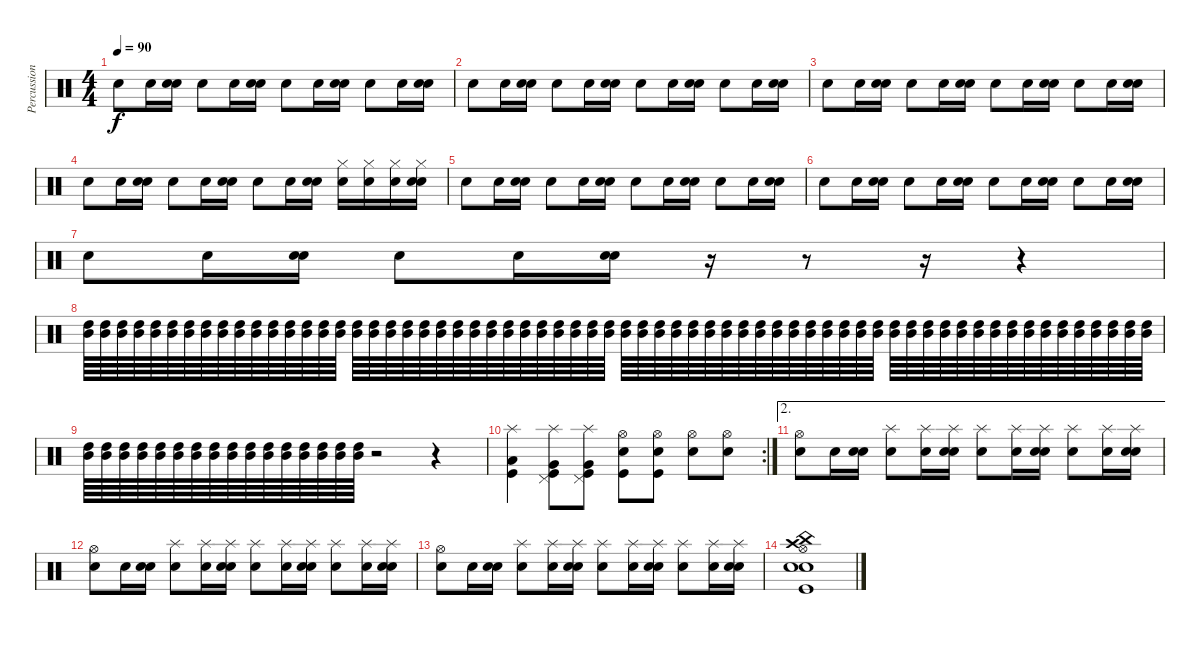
\track ("Percussions" "Percussion") {instrument percussion}
\staff {score}
\articulation defaults
\ts (4 4)
\tempo 90
\clef neutral
\ks c "Snare (hit) 2".8{dy f} "Snare (hit) 2".16
("Electric Snare (hit)" "Snare (hit) 2").16 "Snare (hit) 2".8 "Snare (hit) 2".16 ("Electric Snare (hit)" "Snare (hit) 2").16 "Snare (hit) 2".8 "Snare (hit) 2".16 ("Electric Snare (hit)" "Snare (hit) 2").16 "Snare (hit) 2".8 "Snare (hit) 2".16 ("Electric Snare (hit)" "Snare (hit) 2").16 |
"Snare (hit) 2".8 "Snare (hit) 2".16 ("Electric Snare (hit)" "Snare (hit) 2").16 "Snare (hit) 2".8 "Snare (hit) 2".16 ("Electric Snare (hit)" "Snare (hit) 2").16 "Snare (hit) 2".8 "Snare (hit) 2".16 ("Electric Snare (hit)" "Snare (hit) 2").16 "Snare (hit) 2".8 "Snare (hit) 2".16 ("Electric Snare (hit)" "Snare (hit) 2").16 |
"Snare (hit) 2".8 "Snare (hit) 2".16 ("Electric Snare (hit)" "Snare (hit) 2").16 "Snare (hit) 2".8 "Snare (hit) 2".16 ("Electric Snare (hit)" "Snare (hit) 2").16 "Snare (hit) 2".8 "Snare (hit) 2".16 ("Electric Snare (hit)" "Snare (hit) 2").16 "Snare (hit) 2".8 "Snare (hit) 2".16 ("Electric Snare (hit)" "Snare (hit) 2").16 |
"Snare (hit) 2".8 "Snare (hit) 2".16 ("Electric Snare (hit)" "Snare (hit) 2").16 "Snare (hit) 2".8 "Snare (hit) 2".16 ("Electric Snare (hit)" "Snare (hit) 2").16 "Snare (hit) 2".8 "Snare (hit) 2".16 ("Electric Snare (hit)" "Snare (hit) 2").16 ("Hi-Hat (closed)" "Snare (hit) 2").16 ("Hi-Hat (closed)" "Snare (hit) 2").16 ("Hi-Hat (closed)" "Snare (hit) 2").16 ("Hi-Hat (closed)" "Electric Snare (hit)" "Snare (hit) 2").16 |
"Snare (hit) 2".8 "Snare (hit) 2".16 ("Electric Snare (hit)" "Snare (hit) 2").16 "Snare (hit) 2".8 "Snare (hit) 2".16 ("Electric Snare (hit)" "Snare (hit) 2").16 "Snare (hit) 2".8 "Snare (hit) 2".16 ("Electric Snare (hit)" "Snare (hit) 2").16 "Snare (hit) 2".8 "Snare (hit) 2".16 ("Electric Snare (hit)" "Snare (hit) 2").16 |
"Snare (hit) 2".8 "Snare (hit) 2".16 ("Electric Snare (hit)" "Snare (hit) 2").16 "Snare (hit) 2".8 "Snare (hit) 2".16 ("Electric Snare (hit)" "Snare (hit) 2").16 "Snare (hit) 2".8 "Snare (hit) 2".16 ("Electric Snare (hit)" "Snare (hit) 2").16 "Snare (hit) 2".8 "Snare (hit) 2".16 ("Electric Snare (hit)" "Snare (hit) 2").16 |
"Snare (hit) 2".8 "Snare (hit) 2".16 ("Electric Snare (hit)" "Snare (hit) 2").16 "Snare (hit) 2".8 "Snare (hit) 2".16 ("Electric Snare (hit)" "Snare (hit) 2").16 r.16 r.8 r.16 r.4{volume 5} |
("Mid Tom (hit)" "High Tom (hit)").64{volume 10} ("Mid Tom (hit)" "High Tom (hit)").64 ("Mid Tom (hit)" "High Tom (hit)").64 ("Mid Tom (hit)" "High Tom (hit)").64 ("Mid Tom (hit)" "High Tom (hit)").64 ("Mid Tom (hit)" "High Tom (hit)").64 ("Mid Tom (hit)" "High Tom (hit)").64 ("Mid Tom (hit)" "High Tom (hit)").64 ("Mid Tom (hit)" "High Tom (hit)").64 ("Mid Tom (hit)" "High Tom (hit)").64 ("Mid Tom (hit)" "High Tom (hit)").64 ("Mid Tom (hit)" "High Tom (hit)").64 ("Mid Tom (hit)" "High Tom (hit)").64 ("Mid Tom (hit)" "High Tom (hit)").64 ("Mid Tom (hit)" "High Tom (hit)").64 ("Mid Tom (hit)" "High Tom (hit)").64 ("Mid Tom (hit)" "High Tom (hit)").64 ("Mid Tom (hit)" "High Tom (hit)").64 ("Mid Tom (hit)" "High Tom (hit)").64 ("Mid Tom (hit)" "High Tom (hit)").64 ("Mid Tom (hit)" "High Tom (hit)").64 ("Mid Tom (hit)" "High Tom (hit)").64 ("Mid Tom (hit)" "High Tom (hit)").64 ("Mid Tom (hit)" "High Tom (hit)").64 ("Mid Tom (hit)" "High Tom (hit)").64 ("Mid Tom (hit)" "High Tom (hit)").64 ("Mid Tom (hit)" "High Tom (hit)").64 ("Mid Tom (hit)" "High Tom (hit)").64 ("Mid Tom (hit)" "High Tom (hit)").64 ("Mid Tom (hit)" "High Tom (hit)").64 ("Mid Tom (hit)" "High Tom (hit)").64 ("Mid Tom (hit)" "High Tom (hit)").64 ("Mid Tom (hit)" "High Tom (hit)").64 ("Mid Tom (hit)" "High Tom (hit)").64 ("Mid Tom (hit)" "High Tom (hit)").64 ("Mid Tom (hit)" "High Tom (hit)").64 ("Mid Tom (hit)" "High Tom (hit)").64 ("Mid Tom (hit)" "High Tom (hit)").64 ("Mid Tom (hit)" "High Tom (hit)").64 ("Mid Tom (hit)" "High Tom (hit)").64 ("Mid Tom (hit)" "High Tom (hit)").64 ("Mid Tom (hit)" "High Tom (hit)").64 ("Mid Tom (hit)" "High Tom (hit)").64 ("Mid Tom (hit)" "High Tom (hit)").64 ("Mid Tom (hit)" "High Tom (hit)").64 ("Mid Tom (hit)" "High Tom (hit)").64 ("Mid Tom (hit)" "High Tom (hit)").64 ("Mid Tom (hit)" "High Tom (hit)").64 ("Mid Tom (hit)" "High Tom (hit)").64 ("Mid Tom (hit)" "High Tom (hit)").64 ("Mid Tom (hit)" "High Tom (hit)").64 ("Mid Tom (hit)" "High Tom (hit)").64 ("Mid Tom (hit)" "High Tom (hit)").64 ("Mid Tom (hit)" "High Tom (hit)").64 ("Mid Tom (hit)" "High Tom (hit)").64 ("Mid Tom (hit)" "High Tom (hit)").64 ("Mid Tom (hit)" "High Tom (hit)").64 ("Mid Tom (hit)" "High Tom (hit)").64 ("Mid Tom (hit)" "High Tom (hit)").64 ("Mid Tom (hit)" "High Tom (hit)").64 ("Mid Tom (hit)" "High Tom (hit)").64 ("Mid Tom (hit)" "High Tom (hit)").64 ("Mid Tom (hit)" "High Tom (hit)").64 ("Mid Tom (hit)" "High Tom (hit)").64 |
("Mid Tom (hit)" "High Tom (hit)").64 ("Mid Tom (hit)" "High Tom (hit)").64 ("Mid Tom (hit)" "High Tom (hit)").64 ("Mid Tom (hit)" "High Tom (hit)").64 ("Mid Tom (hit)" "High Tom (hit)").64 ("Mid Tom (hit)" "High Tom (hit)").64 ("Mid Tom (hit)" "High Tom (hit)").64 ("Mid Tom (hit)" "High Tom (hit)").64 ("Mid Tom (hit)" "High Tom (hit)").64 ("Mid Tom (hit)" "High Tom (hit)").64 ("Mid Tom (hit)" "High Tom (hit)").64 ("Mid Tom (hit)" "High Tom (hit)").64 ("Mid Tom (hit)" "High Tom (hit)").64 ("Mid Tom (hit)" "High Tom (hit)").64 ("Mid Tom (hit)" "High Tom (hit)").64 ("Mid Tom (hit)" "High Tom (hit)").64 r.2 r.4 |
\rc 2
("Splash (hit)" "Low Tom (hit)" "Kick (hit)").4 ("Splash (hit)" "Very Low Tom (hit)" "Pedal Hi-Hat (hit)" "Kick (hit)").8 ("Splash (hit)" "Very Low Tom (hit)" "Pedal Hi-Hat (hit)" "Kick (hit)").8 ("Hi-Hat (open)" "Snare (hit) 2" "Kick (hit)").8 ("Hi-Hat (open)" "Snare (hit) 2" "Kick (hit)").8 ("Hi-Hat (open)" "Snare (hit) 2").8 ("Hi-Hat (open)" "Snare (hit) 2").8 |
\ae 2
("Hi-Hat (open)" "Snare (hit) 2").8 "Snare (hit) 2".16 ("Electric Snare (hit)" "Snare (hit) 2").16 ("Splash (hit)" "Snare (hit) 2").8 ("Splash (hit)" "Snare (hit) 2").16 ("Splash (hit)" "Electric Snare (hit)" "Snare (hit) 2").16 ("Splash (hit)" "Snare (hit) 2").8 ("Splash (hit)" "Snare (hit) 2").16 ("Splash (hit)" "Electric Snare (hit)" "Snare (hit) 2").16 ("Splash (hit)" "Snare (hit) 2").8 ("Splash (hit)" "Snare (hit) 2").16 ("Splash (hit)" "Electric Snare (hit)" "Snare (hit) 2").16 |
("Hi-Hat (open)" "Snare (hit) 2").8 "Snare (hit) 2".16 ("Electric Snare (hit)" "Snare (hit) 2").16 ("Splash (hit)" "Snare (hit) 2").8 ("Splash (hit)" "Snare (hit) 2").16 ("Splash (hit)" "Electric Snare (hit)" "Snare (hit) 2").16 ("Splash (hit)" "Snare (hit) 2").8 ("Splash (hit)" "Snare (hit) 2").16 ("Splash (hit)" "Electric Snare (hit)" "Snare (hit) 2").16 ("Splash (hit)" "Snare (hit) 2").8 ("Splash (hit)" "Snare (hit) 2").16 ("Splash (hit)" "Electric Snare (hit)" "Snare (hit) 2").16 |
("Hi-Hat (open)" "Snare (hit) 2").8 "Snare (hit) 2".16 ("Electric Snare (hit)" "Snare (hit) 2").16 ("Splash (hit)" "Snare (hit) 2").8 ("Splash (hit)" "Snare (hit) 2").16 ("Splash (hit)" "Electric Snare (hit)" "Snare (hit) 2").16 ("Splash (hit)" "Snare (hit) 2").8 ("Splash (hit)" "Snare (hit) 2").16 ("Splash (hit)" "Electric Snare (hit)" "Snare (hit) 2").16 ("Splash (hit)" "Snare (hit) 2").8 ("Splash (hit)" "Snare (hit) 2").16 ("Splash (hit)" "Electric Snare (hit)" "Snare (hit) 2").16 |
("Crash high (hit)" "China (hit)" "Hi-Hat (open)" "Electric Snare (hit)" "Snare (hit) 2" "Kick (hit)").1
